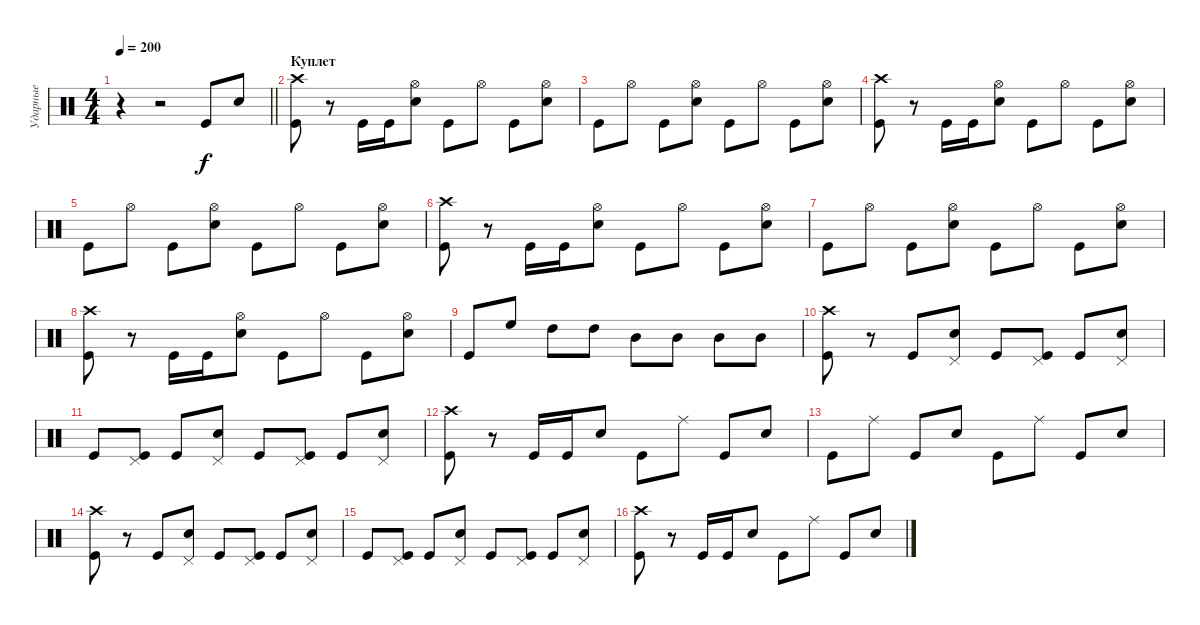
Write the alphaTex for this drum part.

\track ("Ударные" "Ударные") {instrument percussion}
\staff {score}
\articulation defaults
\ts (4 4)
\tempo 200
\clef neutral
\barLineRight lightlight
\ks c
r.4{dy f} r.2 "Kick (hit)".8 "Snare (hit) 2".8 |
\section ("" "Куплет")
("Crash high (hit)" "Kick (hit)").8 r.8 "Kick (hit)".16 "Kick (hit)".16 ("Hi-Hat (open)" "Snare (hit) 2").8 "Kick (hit)".8 "Hi-Hat (open)".8 "Kick (hit)".8 ("Hi-Hat (open)" "Snare (hit) 2").8 |
"Kick (hit)".8 "Hi-Hat (open)".8 "Kick (hit)".8 ("Hi-Hat (open)" "Snare (hit) 2").8 "Kick (hit)".8 "Hi-Hat (open)".8 "Kick (hit)".8 ("Hi-Hat (open)" "Snare (hit) 2").8 |
("Crash high (hit)" "Kick (hit)").8 r.8 "Kick (hit)".16 "Kick (hit)".16 ("Hi-Hat (open)" "Snare (hit) 2").8 "Kick (hit)".8 "Hi-Hat (open)".8 "Kick (hit)".8 ("Hi-Hat (open)" "Snare (hit) 2").8 |
"Kick (hit)".8 "Hi-Hat (open)".8 "Kick (hit)".8 ("Hi-Hat (open)" "Snare (hit) 2").8 "Kick (hit)".8 "Hi-Hat (open)".8 "Kick (hit)".8 ("Hi-Hat (open)" "Snare (hit) 2").8 |
("Crash high (hit)" "Kick (hit)").8 r.8 "Kick (hit)".16 "Kick (hit)".16 ("Hi-Hat (open)" "Snare (hit) 2").8 "Kick (hit)".8 "Hi-Hat (open)".8 "Kick (hit)".8 ("Hi-Hat (open)" "Snare (hit) 2").8 |
"Kick (hit)".8 "Hi-Hat (open)".8 "Kick (hit)".8 ("Hi-Hat (open)" "Snare (hit) 2").8 "Kick (hit)".8 "Hi-Hat (open)".8 "Kick (hit)".8 ("Hi-Hat (open)" "Snare (hit) 2").8 |
("Crash high (hit)" "Kick (hit)").8 r.8 "Kick (hit)".16 "Kick (hit)".16 ("Hi-Hat (open)" "Snare (hit) 2").8 "Kick (hit)".8 "Hi-Hat (open)".8 "Kick (hit)".8 ("Hi-Hat (open)" "Snare (hit) 2").8 |
"Kick (hit)".8 "High Floor Tom (hit)".8 "High Tom (hit)".8 "High Tom (hit)".8 "Mid Tom (hit)".8 "Mid Tom (hit)".8 "Mid Tom (hit)".8 "Mid Tom (hit)".8 |
("Crash high (hit)" "Kick (hit)").8 r.8 "Kick (hit)".8 ("Pedal Hi-Hat (hit)" "Snare (hit) 2").8 "Kick (hit)".8 ("Pedal Hi-Hat (hit)" "Kick (hit)").8 "Kick (hit)".8 ("Pedal Hi-Hat (hit)" "Snare (hit) 2").8 |
"Kick (hit)".8 ("Pedal Hi-Hat (hit)" "Kick (hit)").8 "Kick (hit)".8 ("Pedal Hi-Hat (hit)" "Snare (hit) 2").8 "Kick (hit)".8 ("Pedal Hi-Hat (hit)" "Kick (hit)").8 "Kick (hit)".8 ("Pedal Hi-Hat (hit)" "Snare (hit) 2").8 |
("Crash high (hit)" "Kick (hit)").8 r.8 "Kick (hit)".16 "Kick (hit)".16 "Snare (hit) 2".8 "Kick (hit)".8 "Ride (middle)".8 "Kick (hit)".8 "Snare (hit) 2".8 |
"Kick (hit)".8 "Ride (middle)".8 "Kick (hit)".8 "Snare (hit) 2".8 "Kick (hit)".8 "Ride (middle)".8 "Kick (hit)".8 "Snare (hit) 2".8 |
("Crash high (hit)" "Kick (hit)").8 r.8 "Kick (hit)".8 ("Pedal Hi-Hat (hit)" "Snare (hit) 2").8 "Kick (hit)".8 ("Pedal Hi-Hat (hit)" "Kick (hit)").8 "Kick (hit)".8 ("Pedal Hi-Hat (hit)" "Snare (hit) 2").8 |
"Kick (hit)".8 ("Pedal Hi-Hat (hit)" "Kick (hit)").8 "Kick (hit)".8 ("Pedal Hi-Hat (hit)" "Snare (hit) 2").8 "Kick (hit)".8 ("Pedal Hi-Hat (hit)" "Kick (hit)").8 "Kick (hit)".8 ("Pedal Hi-Hat (hit)" "Snare (hit) 2").8 |
("Crash high (hit)" "Kick (hit)").8 r.8 "Kick (hit)".16 "Kick (hit)".16 "Snare (hit) 2".8 "Kick (hit)".8 "Ride (middle)".8 "Kick (hit)".8 "Snare (hit) 2".8
